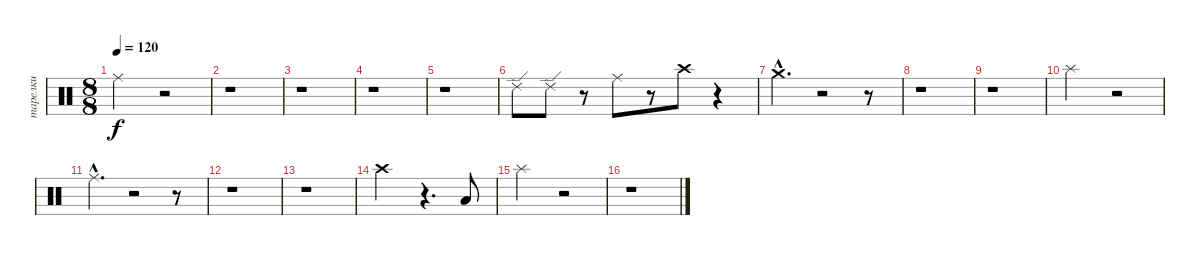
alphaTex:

\track ("тарелки" "тарелки") {instrument percussion}
\staff {score}
\articulation defaults
\ts (8 8)
\tempo 120
\clef neutral
\ks c "Ride (middle)".2{dy f}
r.2 |
r.1 |
r.1 |
r.1 |
r.1 |
"Ride (edge) 2".8 "Ride (edge) 2".8 r.8 "Ride (middle)".8 r.8 "Crash high (hit)".8 r.4 |
"Crash medium (hit)"{hac}.4{d} r.2 r.8 |
r.1 |
r.1 |
"Splash (hit)".2 r.2 |
"Ride (middle)"{hac}.4{d} r.2 r.8 |
r.1 |
r.1 |
"Crash high (hit)".2 r.4{d} "Low Tom (hit)".8 |
"Splash (hit)".2 r.2 |
r.1
